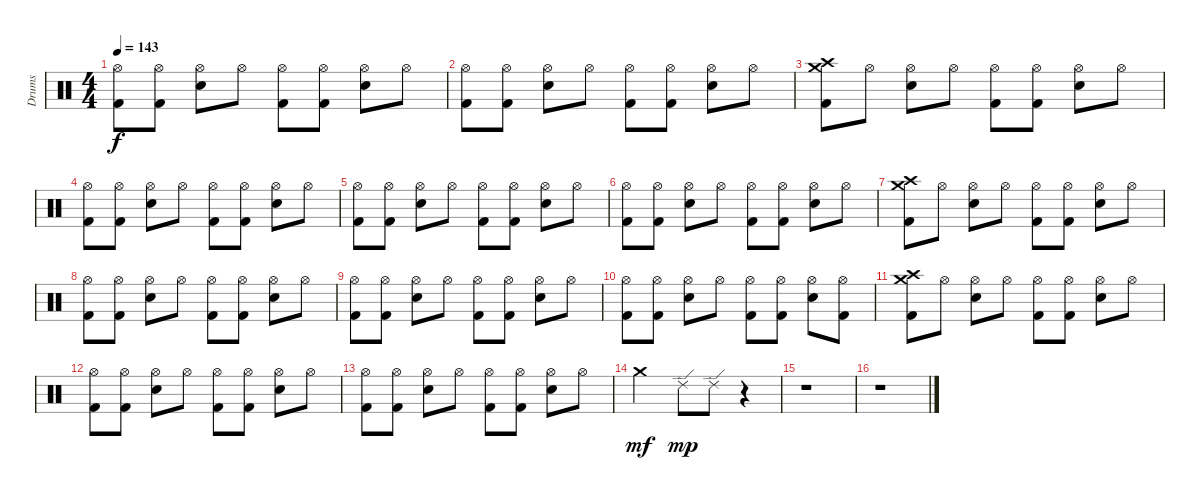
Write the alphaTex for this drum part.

\track ("Drums" "Drums") {instrument percussion}
\staff {score}
\articulation defaults
\ts (4 4)
\tempo 143
\clef neutral
\ks c
("Hi-Hat (open)" "Kick (hit) 2").8{dy f} ("Hi-Hat (open)" "Kick (hit) 2").8 ("Hi-Hat (open)" "Snare (hit) 2").8 "Hi-Hat (open)".8 ("Hi-Hat (open)" "Kick (hit) 2").8 ("Hi-Hat (open)" "Kick (hit) 2").8 ("Hi-Hat (open)" "Snare (hit) 2").8 "Hi-Hat (open)".8 |
("Hi-Hat (open)" "Kick (hit) 2").8 ("Hi-Hat (open)" "Kick (hit) 2").8 ("Hi-Hat (open)" "Snare (hit) 2").8 "Hi-Hat (open)".8 ("Hi-Hat (open)" "Kick (hit) 2").8 ("Hi-Hat (open)" "Kick (hit) 2").8 ("Hi-Hat (open)" "Snare (hit) 2").8 "Hi-Hat (open)".8 |
("Crash high (hit)" "Crash medium (hit)" "Kick (hit) 2").8 "Hi-Hat (open)".8 ("Hi-Hat (open)" "Snare (hit) 2").8 "Hi-Hat (open)".8 ("Hi-Hat (open)" "Kick (hit) 2").8 ("Hi-Hat (open)" "Kick (hit) 2").8 ("Hi-Hat (open)" "Snare (hit) 2").8 "Hi-Hat (open)".8 |
("Hi-Hat (open)" "Kick (hit) 2").8 ("Hi-Hat (open)" "Kick (hit) 2").8 ("Hi-Hat (open)" "Snare (hit) 2").8 "Hi-Hat (open)".8 ("Hi-Hat (open)" "Kick (hit) 2").8 ("Hi-Hat (open)" "Kick (hit) 2").8 ("Hi-Hat (open)" "Snare (hit) 2").8 "Hi-Hat (open)".8 |
("Hi-Hat (open)" "Kick (hit) 2").8 ("Hi-Hat (open)" "Kick (hit) 2").8 ("Hi-Hat (open)" "Snare (hit) 2").8 "Hi-Hat (open)".8 ("Hi-Hat (open)" "Kick (hit) 2").8 ("Hi-Hat (open)" "Kick (hit) 2").8 ("Hi-Hat (open)" "Snare (hit) 2").8 "Hi-Hat (open)".8 |
("Hi-Hat (open)" "Kick (hit) 2").8 ("Hi-Hat (open)" "Kick (hit) 2").8 ("Hi-Hat (open)" "Snare (hit) 2").8 "Hi-Hat (open)".8 ("Hi-Hat (open)" "Kick (hit) 2").8 ("Hi-Hat (open)" "Kick (hit) 2").8 ("Hi-Hat (open)" "Snare (hit) 2").8 "Hi-Hat (open)".8 |
("Crash high (hit)" "Crash medium (hit)" "Kick (hit) 2").8 "Hi-Hat (open)".8 ("Hi-Hat (open)" "Snare (hit) 2").8 "Hi-Hat (open)".8 ("Hi-Hat (open)" "Kick (hit) 2").8 ("Hi-Hat (open)" "Kick (hit) 2").8 ("Hi-Hat (open)" "Snare (hit) 2").8 "Hi-Hat (open)".8 |
("Hi-Hat (open)" "Kick (hit) 2").8 ("Hi-Hat (open)" "Kick (hit) 2").8 ("Hi-Hat (open)" "Snare (hit) 2").8 "Hi-Hat (open)".8 ("Hi-Hat (open)" "Kick (hit) 2").8 ("Hi-Hat (open)" "Kick (hit) 2").8 ("Hi-Hat (open)" "Snare (hit) 2").8 "Hi-Hat (open)".8 |
("Hi-Hat (open)" "Kick (hit) 2").8 ("Hi-Hat (open)" "Kick (hit) 2").8 ("Hi-Hat (open)" "Snare (hit) 2").8 "Hi-Hat (open)".8 ("Hi-Hat (open)" "Kick (hit) 2").8 ("Hi-Hat (open)" "Kick (hit) 2").8 ("Hi-Hat (open)" "Snare (hit) 2").8 "Hi-Hat (open)".8 |
("Hi-Hat (open)" "Kick (hit) 2").8 ("Hi-Hat (open)" "Kick (hit) 2").8 ("Hi-Hat (open)" "Snare (hit) 2").8 "Hi-Hat (open)".8 ("Hi-Hat (open)" "Kick (hit) 2").8 ("Hi-Hat (open)" "Kick (hit) 2").8 ("Hi-Hat (open)" "Snare (hit) 2").8 ("Hi-Hat (open)" "Kick (hit) 2").8 |
("Crash high (hit)" "Crash medium (hit)" "Kick (hit) 2").8 "Hi-Hat (open)".8 ("Hi-Hat (open)" "Snare (hit) 2").8 "Hi-Hat (open)".8 ("Hi-Hat (open)" "Kick (hit) 2").8 ("Hi-Hat (open)" "Kick (hit) 2").8 ("Hi-Hat (open)" "Snare (hit) 2").8 "Hi-Hat (open)".8 |
("Hi-Hat (open)" "Kick (hit) 2").8 ("Hi-Hat (open)" "Kick (hit) 2").8 ("Hi-Hat (open)" "Snare (hit) 2").8 "Hi-Hat (open)".8 ("Hi-Hat (open)" "Kick (hit) 2").8 ("Hi-Hat (open)" "Kick (hit) 2").8 ("Hi-Hat (open)" "Snare (hit) 2").8 "Hi-Hat (open)".8 |
("Hi-Hat (open)" "Kick (hit) 2").8 ("Hi-Hat (open)" "Kick (hit) 2").8 ("Hi-Hat (open)" "Snare (hit) 2").8 "Hi-Hat (open)".8 ("Hi-Hat (open)" "Kick (hit) 2").8 ("Hi-Hat (open)" "Kick (hit) 2").8 ("Hi-Hat (open)" "Snare (hit) 2").8 "Hi-Hat (open)".8 |
"Crash medium (hit)".2{dy mf} "Ride (edge) 2".8{dy mp} "Ride (edge) 2".8 r.4 |
r.1 |
r.1
